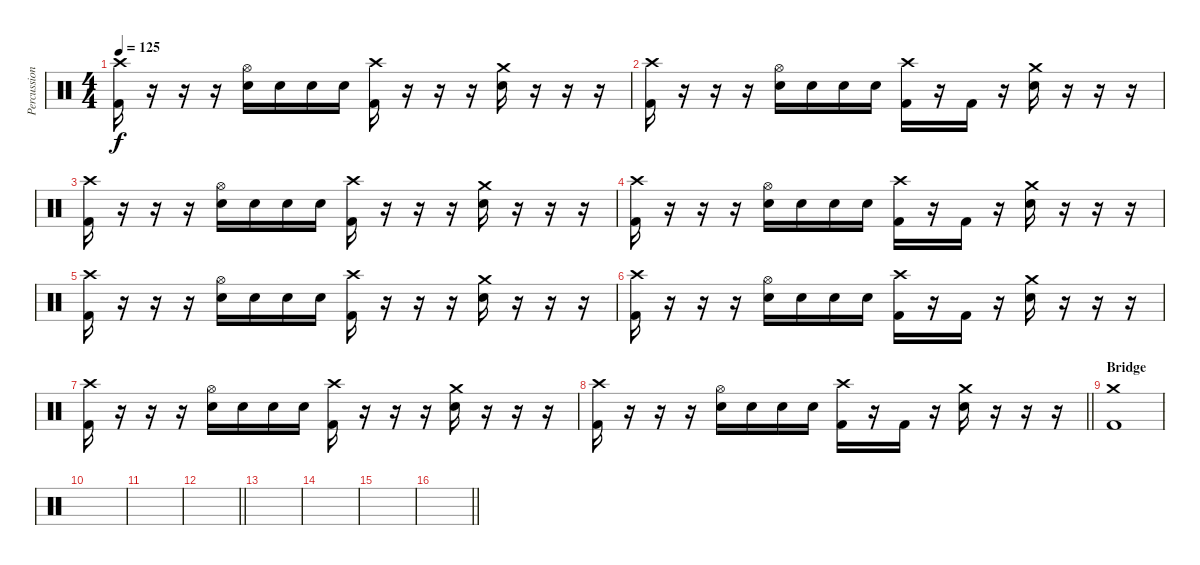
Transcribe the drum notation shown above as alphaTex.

\track ("Percussion" "Percussion") {instrument percussion}
\staff {score}
\articulation defaults
\ts (4 4)
\tempo 125
\clef neutral
\ks c
("Crash high (hit)" "Kick (hit) 2").16{dy f} r.16 r.16 r.16 ("Hi-Hat (open)" "Snare (hit) 2").16 "Snare (hit) 2".16 "Snare (hit) 2".16 "Snare (hit) 2".16 ("Crash high (hit)" "Kick (hit) 2").16 r.16 r.16 r.16 ("Crash medium (hit)" "Snare (hit) 2").16 r.16 r.16 r.16 |
("Crash high (hit)" "Kick (hit) 2").16 r.16 r.16 r.16 ("Hi-Hat (open)" "Snare (hit) 2").16 "Snare (hit) 2".16 "Snare (hit) 2".16 "Snare (hit) 2".16 ("Crash high (hit)" "Kick (hit) 2").16 r.16 "Kick (hit) 2".16 r.16 ("Crash medium (hit)" "Snare (hit) 2").16 r.16 r.16 r.16 |
("Crash high (hit)" "Kick (hit) 2").16 r.16 r.16 r.16 ("Hi-Hat (open)" "Snare (hit) 2").16 "Snare (hit) 2".16 "Snare (hit) 2".16 "Snare (hit) 2".16 ("Crash high (hit)" "Kick (hit) 2").16 r.16 r.16 r.16 ("Crash medium (hit)" "Snare (hit) 2").16 r.16 r.16 r.16 |
("Crash high (hit)" "Kick (hit) 2").16 r.16 r.16 r.16 ("Hi-Hat (open)" "Snare (hit) 2").16 "Snare (hit) 2".16 "Snare (hit) 2".16 "Snare (hit) 2".16 ("Crash high (hit)" "Kick (hit) 2").16 r.16 "Kick (hit) 2".16 r.16 ("Crash medium (hit)" "Snare (hit) 2").16 r.16 r.16 r.16 |
("Crash high (hit)" "Kick (hit) 2").16 r.16 r.16 r.16 ("Hi-Hat (open)" "Snare (hit) 2").16 "Snare (hit) 2".16 "Snare (hit) 2".16 "Snare (hit) 2".16 ("Crash high (hit)" "Kick (hit) 2").16 r.16 r.16 r.16 ("Crash medium (hit)" "Snare (hit) 2").16 r.16 r.16 r.16 |
("Crash high (hit)" "Kick (hit) 2").16 r.16 r.16 r.16 ("Hi-Hat (open)" "Snare (hit) 2").16 "Snare (hit) 2".16 "Snare (hit) 2".16 "Snare (hit) 2".16 ("Crash high (hit)" "Kick (hit) 2").16 r.16 "Kick (hit) 2".16 r.16 ("Crash medium (hit)" "Snare (hit) 2").16 r.16 r.16 r.16 |
("Crash high (hit)" "Kick (hit) 2").16 r.16 r.16 r.16 ("Hi-Hat (open)" "Snare (hit) 2").16 "Snare (hit) 2".16 "Snare (hit) 2".16 "Snare (hit) 2".16 ("Crash high (hit)" "Kick (hit) 2").16 r.16 r.16 r.16 ("Crash medium (hit)" "Snare (hit) 2").16 r.16 r.16 r.16 |
\barLineRight lightlight
("Crash high (hit)" "Kick (hit) 2").16 r.16 r.16 r.16 ("Hi-Hat (open)" "Snare (hit) 2").16 "Snare (hit) 2".16 "Snare (hit) 2".16 "Snare (hit) 2".16 ("Crash high (hit)" "Kick (hit) 2").16 r.16 "Kick (hit) 2".16 r.16 ("Crash medium (hit)" "Snare (hit) 2").16 r.16 r.16 r.16 |
\section ("" "Bridge")
("Crash medium (hit)" "Kick (hit) 2").1 |
|
|
\barLineRight lightlight
|
|
|
|
\barLineRight lightlight
